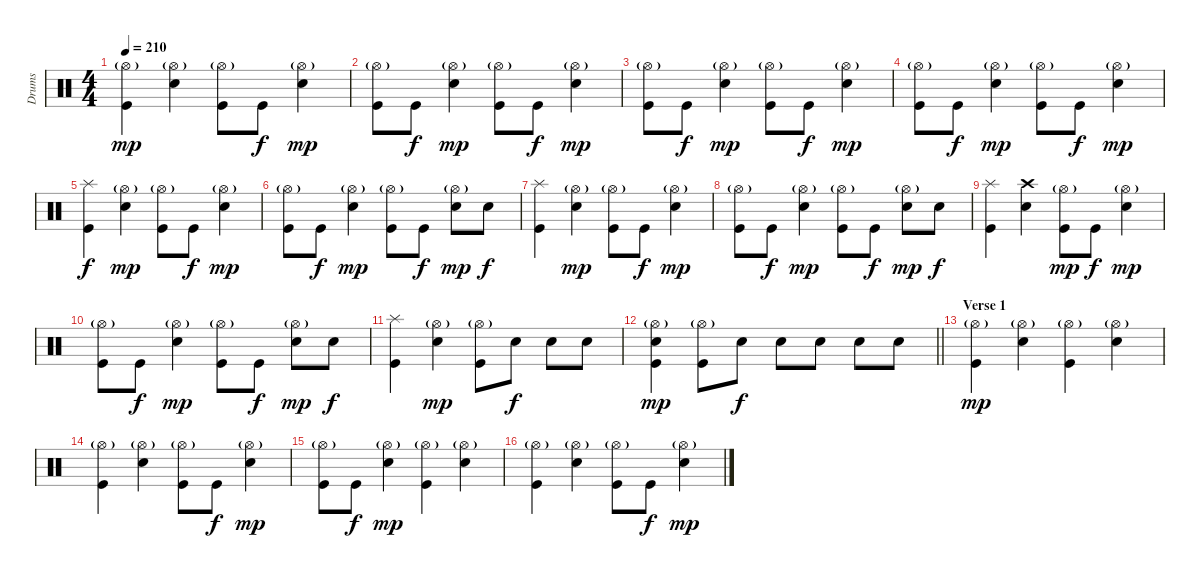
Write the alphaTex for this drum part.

\track ("Drums" "Drums") {instrument percussion}
\staff {score}
\articulation defaults
\ts (4 4)
\tempo 210
\clef neutral
\ks c
("Hi-Hat (open)"{g} "Kick (hit)").4{dy mp} ("Hi-Hat (open)"{g} "Snare (hit) 2").4 ("Hi-Hat (open)"{g} "Kick (hit)").8 "Kick (hit)".8{dy f} ("Hi-Hat (open)"{g} "Snare (hit) 2").4{dy mp} |
("Hi-Hat (open)"{g} "Kick (hit)").8 "Kick (hit)".8{dy f} ("Hi-Hat (open)"{g} "Snare (hit) 2").4{dy mp} ("Hi-Hat (open)"{g} "Kick (hit)").8 "Kick (hit)".8{dy f} ("Hi-Hat (open)"{g} "Snare (hit) 2").4{dy mp} |
("Hi-Hat (open)"{g} "Kick (hit)").8 "Kick (hit)".8{dy f} ("Hi-Hat (open)"{g} "Snare (hit) 2").4{dy mp} ("Hi-Hat (open)"{g} "Kick (hit)").8 "Kick (hit)".8{dy f} ("Hi-Hat (open)"{g} "Snare (hit) 2").4{dy mp} |
("Hi-Hat (open)"{g} "Kick (hit)").8 "Kick (hit)".8{dy f} ("Hi-Hat (open)"{g} "Snare (hit) 2").4{dy mp} ("Hi-Hat (open)"{g} "Kick (hit)").8 "Kick (hit)".8{dy f} ("Hi-Hat (open)"{g} "Snare (hit) 2").4{dy mp} |
("Splash (hit)" "Kick (hit)").4{dy f} ("Hi-Hat (open)"{g} "Snare (hit) 2").4{dy mp} ("Hi-Hat (open)"{g} "Kick (hit)").8 "Kick (hit)".8{dy f} ("Hi-Hat (open)"{g} "Snare (hit) 2").4{dy mp} |
("Hi-Hat (open)"{g} "Kick (hit)").8 "Kick (hit)".8{dy f} ("Hi-Hat (open)"{g} "Snare (hit) 2").4{dy mp} ("Hi-Hat (open)"{g} "Kick (hit)").8 "Kick (hit)".8{dy f} ("Hi-Hat (open)"{g} "Snare (hit) 2").8{dy mp} "Snare (hit) 2".8{dy f} |
("Splash (hit)" "Kick (hit)").4 ("Hi-Hat (open)"{g} "Snare (hit) 2").4{dy mp} ("Hi-Hat (open)"{g} "Kick (hit)").8 "Kick (hit)".8{dy f} ("Hi-Hat (open)"{g} "Snare (hit) 2").4{dy mp} |
("Hi-Hat (open)"{g} "Kick (hit)").8 "Kick (hit)".8{dy f} ("Hi-Hat (open)"{g} "Snare (hit) 2").4{dy mp} ("Hi-Hat (open)"{g} "Kick (hit)").8 "Kick (hit)".8{dy f} ("Hi-Hat (open)"{g} "Snare (hit) 2").8{dy mp} "Snare (hit) 2".8{dy f} |
("Splash (hit)" "Kick (hit)").4 ("Crash high (hit)" "Snare (hit) 2").4 ("Hi-Hat (open)"{g} "Kick (hit)").8{dy mp} "Kick (hit)".8{dy f} ("Hi-Hat (open)"{g} "Snare (hit) 2").4{dy mp} |
("Hi-Hat (open)"{g} "Kick (hit)").8 "Kick (hit)".8{dy f} ("Hi-Hat (open)"{g} "Snare (hit) 2").4{dy mp} ("Hi-Hat (open)"{g} "Kick (hit)").8 "Kick (hit)".8{dy f} ("Hi-Hat (open)"{g} "Snare (hit) 2").8{dy mp} "Snare (hit) 2".8{dy f} |
("Splash (hit)" "Kick (hit)").4 ("Hi-Hat (open)"{g} "Snare (hit) 2").4{dy mp} ("Hi-Hat (open)"{g} "Kick (hit)").8 "Snare (hit) 2".8{dy f} "Snare (hit) 2".8 "Snare (hit) 2".8 |
\barLineRight lightlight
("Hi-Hat (open)"{g} "Snare (hit) 2" "Kick (hit)").4{dy mp} ("Hi-Hat (open)"{g} "Kick (hit)").8 "Snare (hit) 2".8{dy f} "Snare (hit) 2".8 "Snare (hit) 2".8 "Snare (hit) 2".8 "Snare (hit) 2".8 |
\section ("" "Verse 1")
("Hi-Hat (open)"{g} "Kick (hit)").4{dy mp} ("Hi-Hat (open)"{g} "Snare (hit) 2").4 ("Hi-Hat (open)"{g} "Kick (hit)").4 ("Hi-Hat (open)"{g} "Snare (hit) 2").4 |
("Hi-Hat (open)"{g} "Kick (hit)").4 ("Hi-Hat (open)"{g} "Snare (hit) 2").4 ("Hi-Hat (open)"{g} "Kick (hit)").8 "Kick (hit)".8{dy f} ("Hi-Hat (open)"{g} "Snare (hit) 2").4{dy mp} |
("Hi-Hat (open)"{g} "Kick (hit)").8 "Kick (hit)".8{dy f} ("Hi-Hat (open)"{g} "Snare (hit) 2").4{dy mp} ("Hi-Hat (open)"{g} "Kick (hit)").4 ("Hi-Hat (open)"{g} "Snare (hit) 2").4 |
("Hi-Hat (open)"{g} "Kick (hit)").4 ("Hi-Hat (open)"{g} "Snare (hit) 2").4 ("Hi-Hat (open)"{g} "Kick (hit)").8 "Kick (hit)".8{dy f} ("Hi-Hat (open)"{g} "Snare (hit) 2").4{dy mp}
